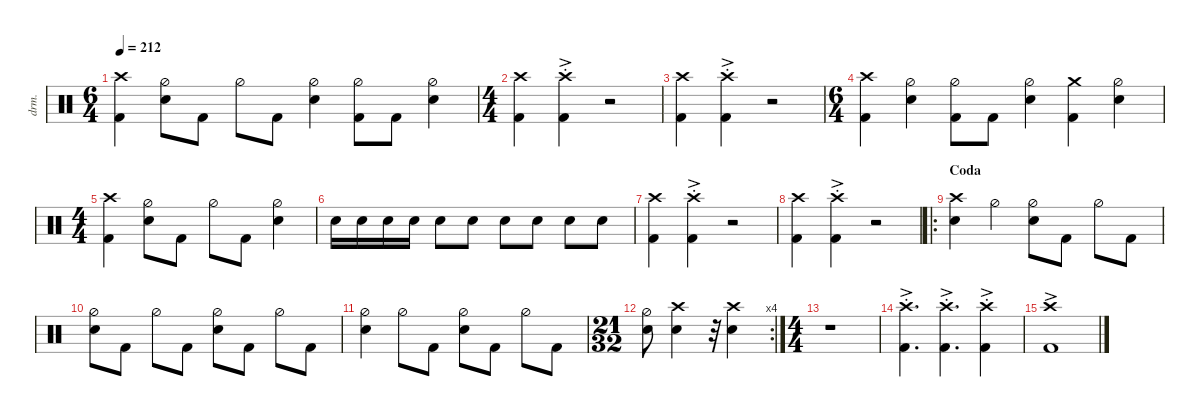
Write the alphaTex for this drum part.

\defaultSystemsLayout 4
\hideDynamics
\bracketExtendMode nobrackets
\track ("Drums" "drm.") {instrument percussion}
\staff {score}
\articulation defaults
\ts (6 4)
\tempo 212
\clef neutral
\ks c
("Crash high (hit)" "Kick (hit) 2").4{dy f} ("Hi-Hat (half)" "Snare (hit) 2").8 "Kick (hit) 2".8 "Hi-Hat (half)".8 "Kick (hit) 2".8 ("Hi-Hat (half)" "Snare (hit) 2").4 ("Hi-Hat (half)" "Kick (hit) 2").8 "Kick (hit) 2".8 ("Hi-Hat (half)" "Snare (hit) 2").4 |
\ts (4 4)
\beaming (8 2 2 2 2)
("Kick (hit) 2" "Crash high (hit)").4 ("Kick (hit) 2" "Crash high (hit)"{ac st}).4 r.2 |
("Kick (hit) 2" "Crash high (hit)").4 ("Kick (hit) 2" "Crash high (hit)"{ac st}).4 r.2 |
\ts (6 4)
\beaming (8 2 2 2 6)
("Crash high (hit)" "Kick (hit) 2").4 ("Hi-Hat (half)" "Snare (hit) 2").4 ("Hi-Hat (half)" "Kick (hit) 2").8 "Kick (hit) 2".8 ("Hi-Hat (half)" "Snare (hit) 2").4 ("Kick (hit) 2" "Crash medium (hit)").4 ("Hi-Hat (half)" "Snare (hit) 2").4 |
\ts (4 4)
\beaming (8 2 2 2 2)
("Crash high (hit)" "Kick (hit) 2").4 ("Hi-Hat (half)" "Snare (hit) 2").8 "Kick (hit) 2".8 "Hi-Hat (half)".8 "Kick (hit) 2".8 ("Hi-Hat (half)" "Snare (hit) 2").4 |
"Snare (hit) 2".16 "Snare (hit) 2".16 "Snare (hit) 2".16 "Snare (hit) 2".16 "Snare (hit) 2".8 "Snare (hit) 2".8 "Snare (hit) 2".8 "Snare (hit) 2".8 "Snare (hit) 2".8 "Snare (hit) 2".8 |
("Kick (hit) 2" "Crash high (hit)").4 ("Kick (hit) 2" "Crash high (hit)"{ac st}).4 r.2 |
("Kick (hit) 2" "Crash high (hit)").4 ("Kick (hit) 2" "Crash high (hit)"{ac st}).4 r.2 |
\ro
\section ("" "Coda")
("Snare (hit) 2" "Crash high (hit)").4 "Hi-Hat (half)".4 ("Hi-Hat (half)" "Snare (hit) 2").8 "Kick (hit) 2".8 "Hi-Hat (half)".8 "Kick (hit) 2".8 |
("Hi-Hat (half)" "Snare (hit) 2").8 "Kick (hit) 2".8 "Hi-Hat (half)".8 "Kick (hit) 2".8 ("Hi-Hat (half)" "Snare (hit) 2").8 "Kick (hit) 2".8 "Hi-Hat (half)".8 "Kick (hit) 2".8 |
("Hi-Hat (half)" "Snare (hit) 2").4 "Hi-Hat (half)".8 "Kick (hit) 2".8 ("Hi-Hat (half)" "Snare (hit) 2").8 "Kick (hit) 2".8 "Hi-Hat (half)".8 "Kick (hit) 2".8 |
\rc 4
\ts (21 32)
\beaming (8 2 2 2 2)
("Snare (hit) 2" "Hi-Hat (half)").8 ("Snare (hit) 2" "Crash high (hit)").4 r.32 ("Snare (hit) 2" "Crash high (hit)").4 |
\ts (4 4)
\beaming (8 2 2 2 2)
r.1 |
("Kick (hit) 2" "Crash high (hit)"{ac st}).4{d} ("Kick (hit) 2" "Crash high (hit)"{ac st}).4{d} ("Kick (hit) 2" "Crash high (hit)"{ac st}).4 |
("Crash high (hit)"{ac} "Kick (hit) 2").1
